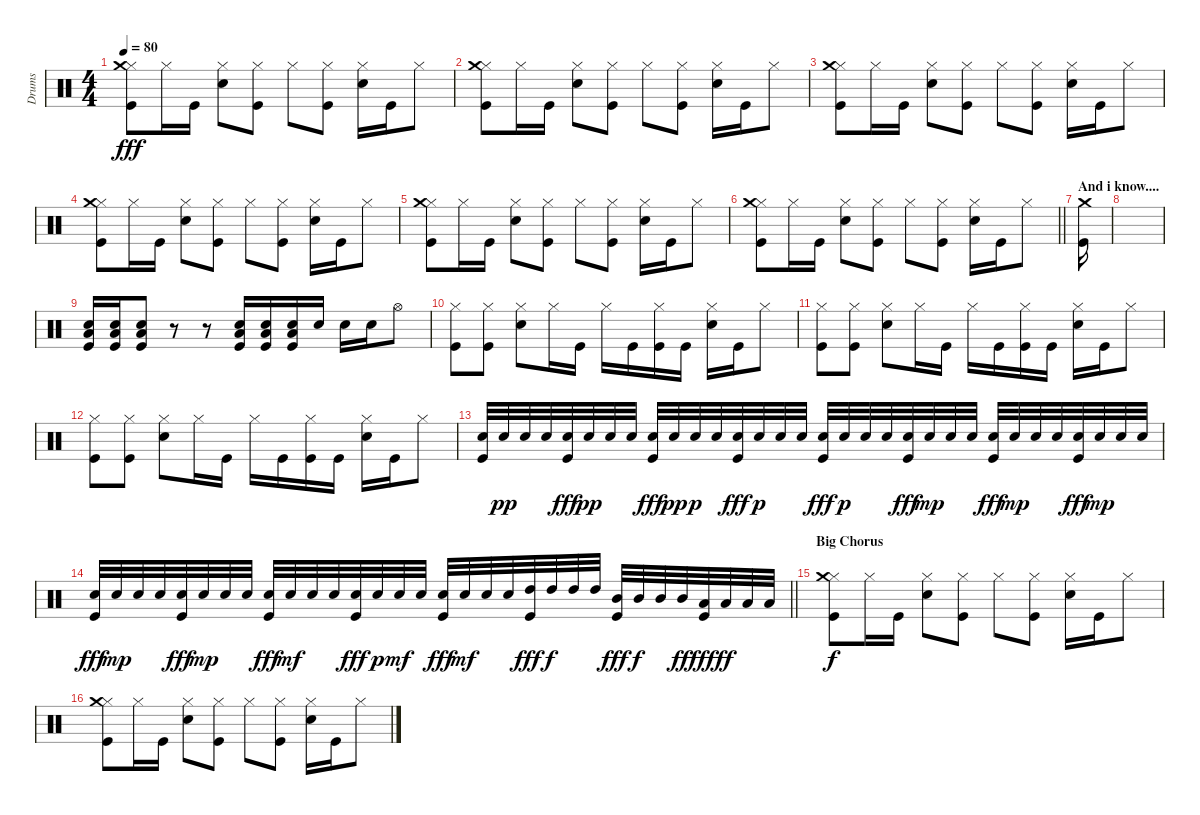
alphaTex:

\track ("Drums" "Drums") {instrument percussion}
\staff {score}
\articulation defaults
\ts (4 4)
\tempo 80
\clef neutral
\ks c
("Hi-Hat (closed)" "Kick (hit)" "Crash medium (hit)").8{dy fff} "Hi-Hat (closed)".16 "Kick (hit)".16 ("Hi-Hat (closed)" "Snare (hit) 2").8 ("Hi-Hat (closed)" "Kick (hit)").8 "Hi-Hat (closed)".8 ("Hi-Hat (closed)" "Kick (hit)").8 ("Hi-Hat (closed)" "Snare (hit) 2").16 "Kick (hit)".16 "Hi-Hat (closed)".8 |
("Hi-Hat (closed)" "Kick (hit)" "Crash medium (hit)").8 "Hi-Hat (closed)".16 "Kick (hit)".16 ("Hi-Hat (closed)" "Snare (hit) 2").8 ("Hi-Hat (closed)" "Kick (hit)").8 "Hi-Hat (closed)".8 ("Hi-Hat (closed)" "Kick (hit)").8 ("Hi-Hat (closed)" "Snare (hit) 2").16 "Kick (hit)".16 "Hi-Hat (closed)".8 |
("Hi-Hat (closed)" "Kick (hit)" "Crash medium (hit)").8 "Hi-Hat (closed)".16 "Kick (hit)".16 ("Hi-Hat (closed)" "Snare (hit) 2").8 ("Hi-Hat (closed)" "Kick (hit)").8 "Hi-Hat (closed)".8 ("Hi-Hat (closed)" "Kick (hit)").8 ("Hi-Hat (closed)" "Snare (hit) 2").16 "Kick (hit)".16 "Hi-Hat (closed)".8 |
("Hi-Hat (closed)" "Kick (hit)" "Crash medium (hit)").8 "Hi-Hat (closed)".16 "Kick (hit)".16 ("Hi-Hat (closed)" "Snare (hit) 2").8 ("Hi-Hat (closed)" "Kick (hit)").8 "Hi-Hat (closed)".8 ("Hi-Hat (closed)" "Kick (hit)").8 ("Hi-Hat (closed)" "Snare (hit) 2").16 "Kick (hit)".16 "Hi-Hat (closed)".8 |
("Hi-Hat (closed)" "Kick (hit)" "Crash medium (hit)").8 "Hi-Hat (closed)".16 "Kick (hit)".16 ("Hi-Hat (closed)" "Snare (hit) 2").8 ("Hi-Hat (closed)" "Kick (hit)").8 "Hi-Hat (closed)".8 ("Hi-Hat (closed)" "Kick (hit)").8 ("Hi-Hat (closed)" "Snare (hit) 2").16 "Kick (hit)".16 "Hi-Hat (closed)".8 |
\barLineRight lightlight
("Hi-Hat (closed)" "Kick (hit)" "Crash medium (hit)").8 "Hi-Hat (closed)".16 "Kick (hit)".16 ("Hi-Hat (closed)" "Snare (hit) 2").8 ("Hi-Hat (closed)" "Kick (hit)").8 "Hi-Hat (closed)".8 ("Hi-Hat (closed)" "Kick (hit)").8 ("Hi-Hat (closed)" "Snare (hit) 2").16 "Kick (hit)".16 "Hi-Hat (closed)".8 |
\section ("" "And i know....")
("Kick (hit)" "Crash medium (hit)").16 |
|
("Low Tom (hit)" "Snare (hit) 2" "Kick (hit)").16 ("Low Tom (hit)" "Snare (hit) 2" "Kick (hit)").16 ("Low Tom (hit)" "Snare (hit) 2" "Kick (hit)").8 r.8 r.8 ("Low Tom (hit)" "Snare (hit) 2" "Kick (hit)").16 ("Low Tom (hit)" "Snare (hit) 2" "Kick (hit)").16 ("Low Tom (hit)" "Snare (hit) 2" "Kick (hit)").16 "Snare (hit)".16 "Snare (hit)".16 "Snare (hit)".16 "Hi-Hat (open)".8 |
("Hi-Hat (closed)" "Kick (hit)").8 ("Hi-Hat (closed)" "Kick (hit)").8 ("Hi-Hat (closed)" "Snare (hit) 2").8 "Hi-Hat (closed)".16 "Kick (hit)".16 "Hi-Hat (closed)".16 "Kick (hit)".16 ("Hi-Hat (closed)" "Kick (hit)").16 "Kick (hit)".16 ("Hi-Hat (closed)" "Snare (hit) 2").16 "Kick (hit)".16 "Hi-Hat (closed)".8 |
("Hi-Hat (closed)" "Kick (hit)").8 ("Hi-Hat (closed)" "Kick (hit)").8 ("Hi-Hat (closed)" "Snare (hit) 2").8 "Hi-Hat (closed)".16 "Kick (hit)".16 "Hi-Hat (closed)".16 "Kick (hit)".16 ("Hi-Hat (closed)" "Kick (hit)").16 "Kick (hit)".16 ("Hi-Hat (closed)" "Snare (hit) 2").16 "Kick (hit)".16 "Hi-Hat (closed)".8 |
("Hi-Hat (closed)" "Kick (hit)").8 ("Hi-Hat (closed)" "Kick (hit)").8 ("Hi-Hat (closed)" "Snare (hit) 2").8 "Hi-Hat (closed)".16 "Kick (hit)".16 "Hi-Hat (closed)".16 "Kick (hit)".16 ("Hi-Hat (closed)" "Kick (hit)").16 "Kick (hit)".16 ("Hi-Hat (closed)" "Snare (hit) 2").16 "Kick (hit)".16 "Hi-Hat (closed)".8 |
("Snare (hit) 2" "Kick (hit)").32 "Snare (hit) 2".32{dy pp} "Snare (hit) 2".32 "Snare (hit) 2".32 ("Snare (hit) 2" "Kick (hit)").32{dy fff} "Snare (hit) 2".32{dy pp} "Snare (hit) 2".32 "Snare (hit) 2".32 ("Snare (hit) 2" "Kick (hit)").32{dy fff} "Snare (hit) 2".32{dy pp} "Snare (hit) 2".32{dy p} "Snare (hit) 2".32 ("Snare (hit) 2" "Kick (hit)").32{dy fff} "Snare (hit) 2".32{dy p} "Snare (hit) 2".32 "Snare (hit) 2".32 ("Snare (hit) 2" "Kick (hit)").32{dy fff} "Snare (hit) 2".32{dy p} "Snare (hit) 2".32 "Snare (hit) 2".32 ("Snare (hit) 2" "Kick (hit)").32{dy fff} "Snare (hit) 2".32{dy mp} "Snare (hit) 2".32 "Snare (hit) 2".32 ("Snare (hit) 2" "Kick (hit)").32{dy fff} "Snare (hit) 2".32{dy mp} "Snare (hit) 2".32 "Snare (hit) 2".32 ("Snare (hit) 2" "Kick (hit)").32{dy fff} "Snare (hit) 2".32{dy mp} "Snare (hit) 2".32 "Snare (hit) 2".32 |
\barLineRight lightlight
("Snare (hit) 2" "Kick (hit)").32{dy fff} "Snare (hit) 2".32{dy mp} "Snare (hit) 2".32 "Snare (hit) 2".32 ("Snare (hit) 2" "Kick (hit)").32{dy fff} "Snare (hit) 2".32{dy mp} "Snare (hit) 2".32 "Snare (hit) 2".32 ("Snare (hit) 2" "Kick (hit)").32{dy fff} "Snare (hit) 2".32{dy mf} "Snare (hit) 2".32 "Snare (hit) 2".32 ("Snare (hit) 2" "Kick (hit)").32{dy fff} "Snare (hit) 2".32{dy p} "Snare (hit) 2".32{dy mf} "Snare (hit) 2".32 ("Snare (hit) 2" "Kick (hit)").32{dy fff} "Snare (hit) 2".32{dy mf} "Snare (hit) 2".32 "Snare (hit) 2".32 ("High Tom (hit)" "Kick (hit)").32{dy fff} "High Tom (hit)".32{dy f} "High Tom (hit)".32 "High Tom (hit)".32 ("Mid Tom (hit)" "Kick (hit)").32{dy fff} "Mid Tom (hit)".32{dy f} "Mid Tom (hit)".32 "Mid Tom (hit)".32{dy ff} ("Low Tom (hit)" "Kick (hit)").32{dy fff} "Low Tom (hit)".32{dy ff} "Low Tom (hit)".32 "Low Tom (hit)".32 |
\section ("" "Big Chorus")
("Hi-Hat (closed)" "Kick (hit)" "Crash medium (hit)").8{dy f} "Hi-Hat (closed)".16 "Kick (hit)".16 ("Hi-Hat (closed)" "Snare (hit) 2").8 ("Hi-Hat (closed)" "Kick (hit)").8 "Hi-Hat (closed)".8 ("Hi-Hat (closed)" "Kick (hit)").8 ("Hi-Hat (closed)" "Snare (hit) 2").16 "Kick (hit)".16 "Hi-Hat (closed)".8 |
("Hi-Hat (closed)" "Kick (hit)" "Crash medium (hit)").8 "Hi-Hat (closed)".16 "Kick (hit)".16 ("Hi-Hat (closed)" "Snare (hit) 2").8 ("Hi-Hat (closed)" "Kick (hit)").8 "Hi-Hat (closed)".8 ("Hi-Hat (closed)" "Kick (hit)").8 ("Hi-Hat (closed)" "Snare (hit) 2").16 "Kick (hit)".16 "Hi-Hat (closed)".8
